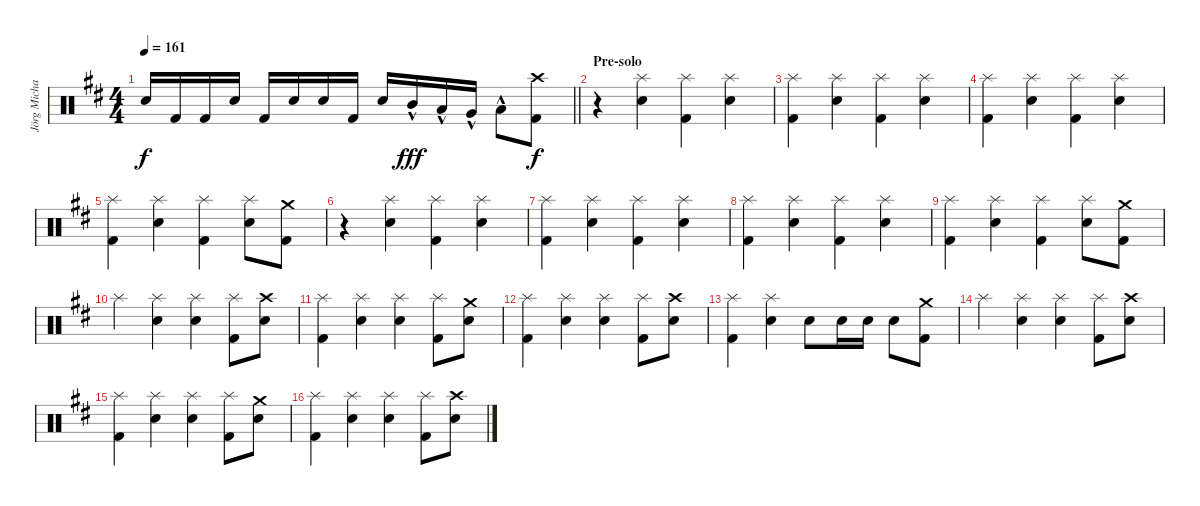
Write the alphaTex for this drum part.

\track ("Jörg Michael" "Jörg Micha") {instrument percussion}
\staff {score}
\articulation defaults
\ts (4 4)
\tempo 161
\clef neutral
\barLineRight lightlight
\ks bminor "Snare (hit) 2".16{dy f} "Kick (hit) 2".16 "Kick (hit) 2".16 "Snare (hit) 2".16 "Kick (hit) 2".16 "Snare (hit) 2".16 "Snare (hit) 2".16 "Kick (hit) 2".16 "Snare (hit) 2".16 "Mid Tom (hit)"{hac}.16{dy fff} "Low Tom (hit)"{hac}.16 "Very Low Tom (hit)"{hac}.16 "Low Tom (hit)"{hac}.8
("Crash high (hit)" "Kick (hit) 2").8{dy f} |
\section ("" "Pre-solo")
r.4 ("Splash (hit)" "Snare (hit) 2").4 ("Splash (hit)" "Kick (hit) 2").4 ("Splash (hit)" "Snare (hit) 2").4 |
("Splash (hit)" "Kick (hit) 2").4 ("Splash (hit)" "Snare (hit) 2").4 ("Splash (hit)" "Kick (hit) 2").4 ("Splash (hit)" "Snare (hit) 2").4 |
("Splash (hit)" "Kick (hit) 2").4 ("Splash (hit)" "Snare (hit) 2").4 ("Splash (hit)" "Kick (hit) 2").4 ("Splash (hit)" "Snare (hit) 2").4 |
("Splash (hit)" "Kick (hit) 2").4 ("Splash (hit)" "Snare (hit) 2").4 ("Splash (hit)" "Kick (hit) 2").4 ("Splash (hit)" "Snare (hit) 2").8 ("Crash medium (hit)" "Kick (hit) 2").8 |
r.4 ("Splash (hit)" "Snare (hit) 2").4 ("Splash (hit)" "Kick (hit) 2").4 ("Splash (hit)" "Snare (hit) 2").4 |
("Splash (hit)" "Kick (hit) 2").4 ("Splash (hit)" "Snare (hit) 2").4 ("Splash (hit)" "Kick (hit) 2").4 ("Splash (hit)" "Snare (hit) 2").4 |
("Splash (hit)" "Kick (hit) 2").4 ("Splash (hit)" "Snare (hit) 2").4 ("Splash (hit)" "Kick (hit) 2").4 ("Splash (hit)" "Snare (hit) 2").4 |
("Splash (hit)" "Kick (hit) 2").4 ("Splash (hit)" "Snare (hit) 2").4 ("Splash (hit)" "Kick (hit) 2").4 ("Splash (hit)" "Snare (hit) 2").8 ("Crash medium (hit)" "Kick (hit) 2").8 |
"Splash (hit)".4 ("Splash (hit)" "Snare (hit) 2").4 ("Splash (hit)" "Snare (hit) 2").4 ("Splash (hit)" "Kick (hit) 2").8 ("Crash high (hit)" "Snare (hit) 2").8 |
("Splash (hit)" "Kick (hit) 2").4 ("Splash (hit)" "Snare (hit) 2").4 ("Splash (hit)" "Snare (hit) 2").4 ("Splash (hit)" "Kick (hit) 2").8 ("Crash medium (hit)" "Snare (hit) 2").8 |
("Splash (hit)" "Kick (hit) 2").4 ("Splash (hit)" "Snare (hit) 2").4 ("Splash (hit)" "Snare (hit) 2").4 ("Splash (hit)" "Kick (hit) 2").8 ("Crash high (hit)" "Snare (hit) 2").8 |
("Splash (hit)" "Kick (hit) 2").4 ("Splash (hit)" "Snare (hit) 2").4 "Snare (hit) 2".8 "Snare (hit) 2".16 "Snare (hit) 2".16 "Snare (hit) 2".8 ("Crash medium (hit)" "Kick (hit) 2").8 |
"Splash (hit)".4 ("Splash (hit)" "Snare (hit) 2").4 ("Splash (hit)" "Snare (hit) 2").4 ("Splash (hit)" "Kick (hit) 2").8 ("Crash high (hit)" "Snare (hit) 2").8 |
("Splash (hit)" "Kick (hit) 2").4 ("Splash (hit)" "Snare (hit) 2").4 ("Splash (hit)" "Snare (hit) 2").4 ("Splash (hit)" "Kick (hit) 2").8 ("Crash medium (hit)" "Snare (hit) 2").8 |
("Splash (hit)" "Kick (hit) 2").4 ("Splash (hit)" "Snare (hit) 2").4 ("Splash (hit)" "Snare (hit) 2").4 ("Splash (hit)" "Kick (hit) 2").8 ("Crash high (hit)" "Snare (hit) 2").8
